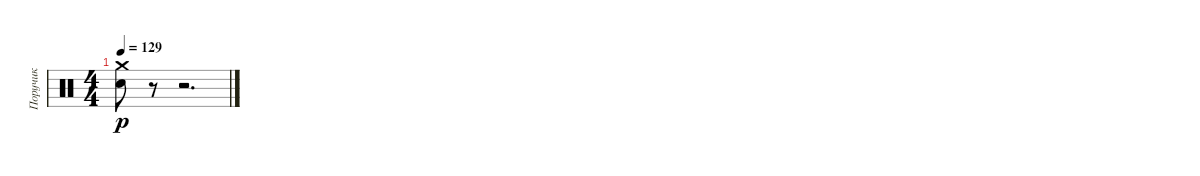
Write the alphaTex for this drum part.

\track ("Поручик" "Поручик") {instrument percussion}
\staff {score}
\articulation defaults
\ts (4 4)
\tempo 129
\clef neutral
\ks c
("Crash medium (hit)" "Electric Snare (hit)").8{dy p} r.8 r.2{d}
